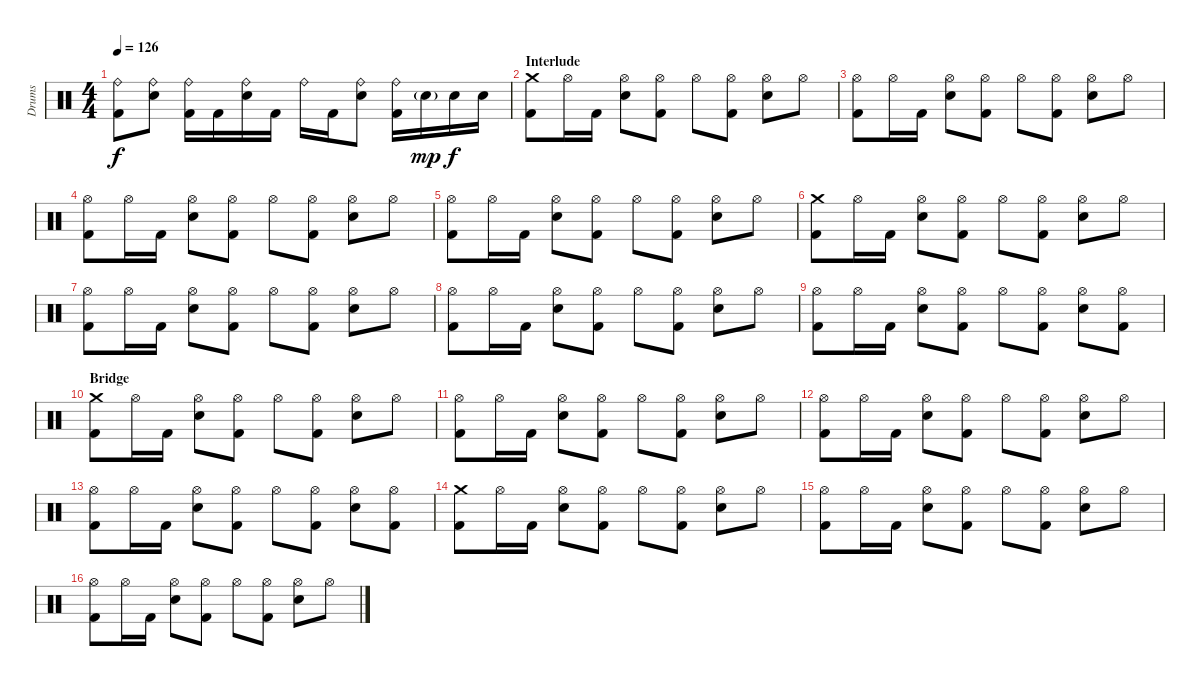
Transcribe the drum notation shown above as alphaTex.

\track ("Drums" "Drums") {instrument percussion}
\staff {score}
\articulation defaults
\ts (4 4)
\tempo 126
\clef neutral
\ks c
("Ride (bell)" "Kick (hit) 2").8{dy f} ("Ride (bell)" "Electric Snare (hit)").8 ("Ride (bell)" "Kick (hit) 2").16 "Kick (hit) 2".16 ("Ride (bell)" "Electric Snare (hit)").16 "Kick (hit) 2".16 "Ride (bell)".16 "Kick (hit) 2".16 ("Ride (bell)" "Electric Snare (hit)").8 ("Ride (bell)" "Kick (hit) 2").16 "Electric Snare (hit)"{g}.16{dy mp} "Electric Snare (hit)".16{dy f} "Electric Snare (hit)".16 |
\section ("" "Interlude")
("Crash medium (hit)" "Kick (hit) 2").8 "Hi-Hat (open)".16 "Kick (hit) 2".16 ("Hi-Hat (open)" "Electric Snare (hit)").8 ("Hi-Hat (open)" "Kick (hit) 2").8 "Hi-Hat (open)".8 ("Hi-Hat (open)" "Kick (hit) 2").8 ("Hi-Hat (open)" "Electric Snare (hit)").8 "Hi-Hat (open)".8 |
("Hi-Hat (open)" "Kick (hit) 2").8 "Hi-Hat (open)".16 "Kick (hit) 2".16 ("Hi-Hat (open)" "Electric Snare (hit)").8 ("Hi-Hat (open)" "Kick (hit) 2").8 "Hi-Hat (open)".8 ("Hi-Hat (open)" "Kick (hit) 2").8 ("Hi-Hat (open)" "Electric Snare (hit)").8 "Hi-Hat (open)".8 |
("Hi-Hat (open)" "Kick (hit) 2").8 "Hi-Hat (open)".16 "Kick (hit) 2".16 ("Hi-Hat (open)" "Electric Snare (hit)").8 ("Hi-Hat (open)" "Kick (hit) 2").8 "Hi-Hat (open)".8 ("Hi-Hat (open)" "Kick (hit) 2").8 ("Hi-Hat (open)" "Electric Snare (hit)").8 "Hi-Hat (open)".8 |
("Hi-Hat (open)" "Kick (hit) 2").8 "Hi-Hat (open)".16 "Kick (hit) 2".16 ("Hi-Hat (open)" "Electric Snare (hit)").8 ("Hi-Hat (open)" "Kick (hit) 2").8 "Hi-Hat (open)".8 ("Hi-Hat (open)" "Kick (hit) 2").8 ("Hi-Hat (open)" "Electric Snare (hit)").8 "Hi-Hat (open)".8 |
("Crash medium (hit)" "Kick (hit) 2").8 "Hi-Hat (open)".16 "Kick (hit) 2".16 ("Hi-Hat (open)" "Electric Snare (hit)").8 ("Hi-Hat (open)" "Kick (hit) 2").8 "Hi-Hat (open)".8 ("Hi-Hat (open)" "Kick (hit) 2").8 ("Hi-Hat (open)" "Electric Snare (hit)").8 "Hi-Hat (open)".8 |
("Hi-Hat (open)" "Kick (hit) 2").8 "Hi-Hat (open)".16 "Kick (hit) 2".16 ("Hi-Hat (open)" "Electric Snare (hit)").8 ("Hi-Hat (open)" "Kick (hit) 2").8 "Hi-Hat (open)".8 ("Hi-Hat (open)" "Kick (hit) 2").8 ("Hi-Hat (open)" "Electric Snare (hit)").8 "Hi-Hat (open)".8 |
("Hi-Hat (open)" "Kick (hit) 2").8 "Hi-Hat (open)".16 "Kick (hit) 2".16 ("Hi-Hat (open)" "Electric Snare (hit)").8 ("Hi-Hat (open)" "Kick (hit) 2").8 "Hi-Hat (open)".8 ("Hi-Hat (open)" "Kick (hit) 2").8 ("Hi-Hat (open)" "Electric Snare (hit)").8 "Hi-Hat (open)".8 |
("Hi-Hat (open)" "Kick (hit) 2").8 "Hi-Hat (open)".16 "Kick (hit) 2".16 ("Hi-Hat (open)" "Electric Snare (hit)").8 ("Hi-Hat (open)" "Kick (hit) 2").8 "Hi-Hat (open)".8 ("Hi-Hat (open)" "Kick (hit) 2").8 ("Hi-Hat (open)" "Electric Snare (hit)").8 ("Hi-Hat (open)" "Kick (hit) 2").8 |
\section ("" "Bridge")
("Crash medium (hit)" "Kick (hit) 2").8 "Hi-Hat (open)".16 "Kick (hit) 2".16 ("Hi-Hat (open)" "Electric Snare (hit)").8 ("Hi-Hat (open)" "Kick (hit) 2").8 "Hi-Hat (open)".8 ("Hi-Hat (open)" "Kick (hit) 2").8 ("Hi-Hat (open)" "Electric Snare (hit)").8 "Hi-Hat (open)".8 |
("Hi-Hat (open)" "Kick (hit) 2").8 "Hi-Hat (open)".16 "Kick (hit) 2".16 ("Hi-Hat (open)" "Electric Snare (hit)").8 ("Hi-Hat (open)" "Kick (hit) 2").8 "Hi-Hat (open)".8 ("Hi-Hat (open)" "Kick (hit) 2").8 ("Hi-Hat (open)" "Electric Snare (hit)").8 "Hi-Hat (open)".8 |
("Hi-Hat (open)" "Kick (hit) 2").8 "Hi-Hat (open)".16 "Kick (hit) 2".16 ("Hi-Hat (open)" "Electric Snare (hit)").8 ("Hi-Hat (open)" "Kick (hit) 2").8 "Hi-Hat (open)".8 ("Hi-Hat (open)" "Kick (hit) 2").8 ("Hi-Hat (open)" "Electric Snare (hit)").8 "Hi-Hat (open)".8 |
("Hi-Hat (open)" "Kick (hit) 2").8 "Hi-Hat (open)".16 "Kick (hit) 2".16 ("Hi-Hat (open)" "Electric Snare (hit)").8 ("Hi-Hat (open)" "Kick (hit) 2").8 "Hi-Hat (open)".8 ("Hi-Hat (open)" "Kick (hit) 2").8 ("Hi-Hat (open)" "Electric Snare (hit)").8 ("Hi-Hat (open)" "Kick (hit) 2").8 |
("Crash medium (hit)" "Kick (hit) 2").8 "Hi-Hat (open)".16 "Kick (hit) 2".16 ("Hi-Hat (open)" "Electric Snare (hit)").8 ("Hi-Hat (open)" "Kick (hit) 2").8 "Hi-Hat (open)".8 ("Hi-Hat (open)" "Kick (hit) 2").8 ("Hi-Hat (open)" "Electric Snare (hit)").8 "Hi-Hat (open)".8 |
("Hi-Hat (open)" "Kick (hit) 2").8 "Hi-Hat (open)".16 "Kick (hit) 2".16 ("Hi-Hat (open)" "Electric Snare (hit)").8 ("Hi-Hat (open)" "Kick (hit) 2").8 "Hi-Hat (open)".8 ("Hi-Hat (open)" "Kick (hit) 2").8 ("Hi-Hat (open)" "Electric Snare (hit)").8 "Hi-Hat (open)".8 |
("Hi-Hat (open)" "Kick (hit) 2").8 "Hi-Hat (open)".16 "Kick (hit) 2".16 ("Hi-Hat (open)" "Electric Snare (hit)").8 ("Hi-Hat (open)" "Kick (hit) 2").8 "Hi-Hat (open)".8 ("Hi-Hat (open)" "Kick (hit) 2").8 ("Hi-Hat (open)" "Electric Snare (hit)").8 "Hi-Hat (open)".8
